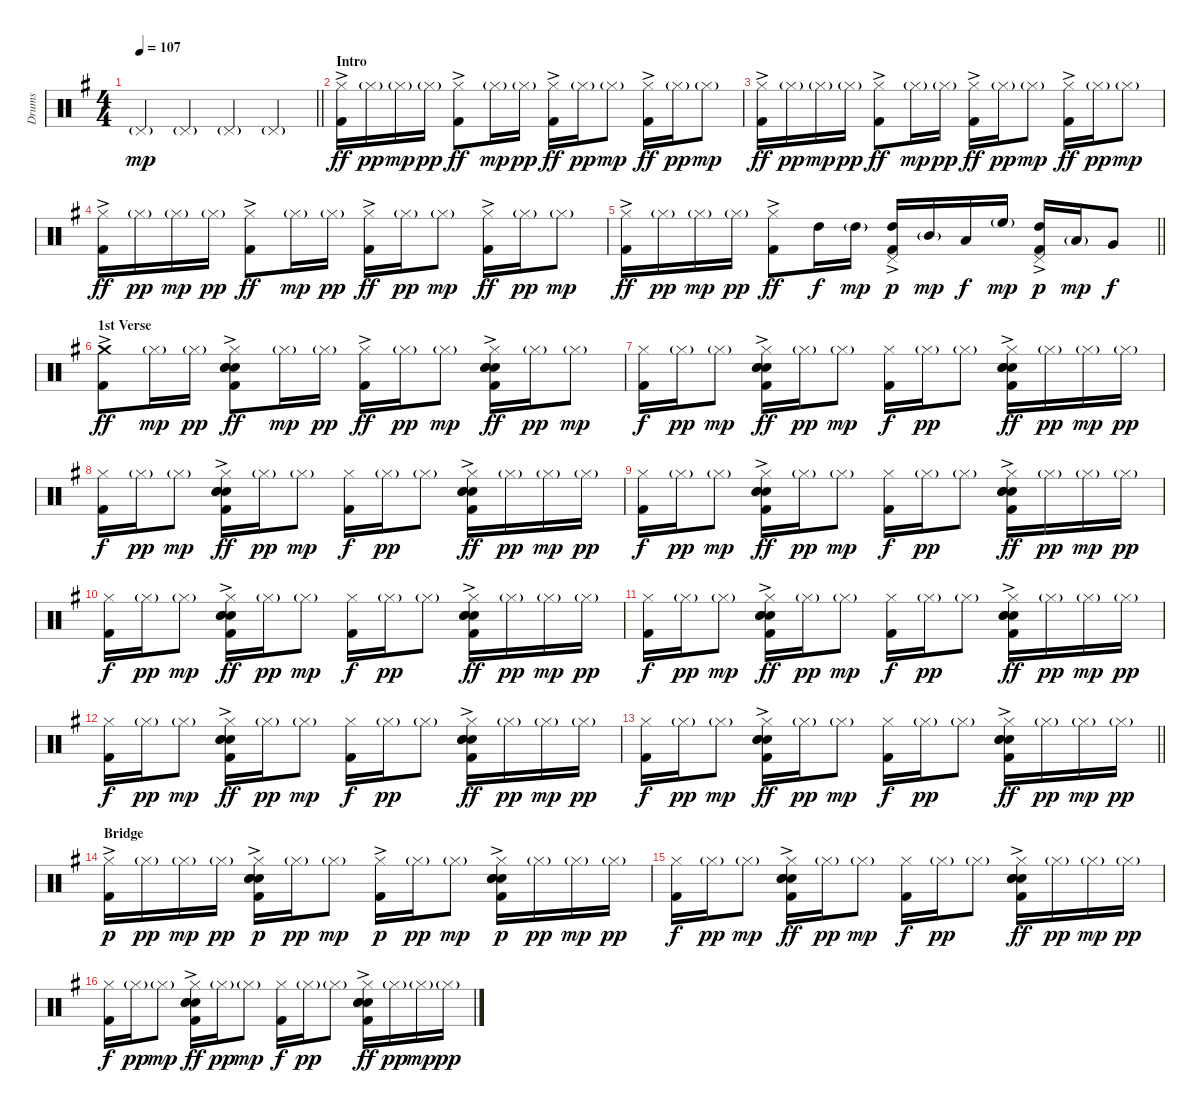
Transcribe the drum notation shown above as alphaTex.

\track ("Drums" "Drums") {instrument percussion}
\staff {score}
\articulation defaults
\ts (4 4)
\tempo 107
\clef neutral
\barLineRight lightlight
\ks g "Pedal Hi-Hat (hit)"{g}.4{dy mp} "Pedal Hi-Hat (hit)"{g}.4 "Pedal Hi-Hat (hit)"{g}.4 "Pedal Hi-Hat (hit)"{g}.4
|
\section ("" "Intro")
("Hi-Hat (closed)" "Kick (hit) 2"{ac}).16{dy ff} "Hi-Hat (closed)"{g}.16{dy pp} "Hi-Hat (closed)"{g}.16{dy mp} "Hi-Hat (closed)"{g}.16{dy pp} ("Hi-Hat (closed)" "Kick (hit) 2"{ac}).8{dy ff} "Hi-Hat (closed)"{g}.16{dy mp} "Hi-Hat (closed)"{g}.16{dy pp} ("Hi-Hat (closed)" "Kick (hit) 2"{ac}).16{dy ff} "Hi-Hat (closed)"{g}.16{dy pp} "Hi-Hat (closed)"{g}.8{dy mp} ("Hi-Hat (closed)" "Kick (hit) 2"{ac}).16{dy ff} "Hi-Hat (closed)"{g}.16{dy pp} "Hi-Hat (closed)"{g}.8{dy mp} |
("Hi-Hat (closed)" "Kick (hit) 2"{ac}).16{dy ff} "Hi-Hat (closed)"{g}.16{dy pp} "Hi-Hat (closed)"{g}.16{dy mp} "Hi-Hat (closed)"{g}.16{dy pp} ("Hi-Hat (closed)" "Kick (hit) 2"{ac}).8{dy ff} "Hi-Hat (closed)"{g}.16{dy mp} "Hi-Hat (closed)"{g}.16{dy pp} ("Hi-Hat (closed)" "Kick (hit) 2"{ac}).16{dy ff} "Hi-Hat (closed)"{g}.16{dy pp} "Hi-Hat (closed)"{g}.8{dy mp} ("Hi-Hat (closed)" "Kick (hit) 2"{ac}).16{dy ff} "Hi-Hat (closed)"{g}.16{dy pp} "Hi-Hat (closed)"{g}.8{dy mp} |
("Hi-Hat (closed)" "Kick (hit) 2"{ac}).16{dy ff} "Hi-Hat (closed)"{g}.16{dy pp} "Hi-Hat (closed)"{g}.16{dy mp} "Hi-Hat (closed)"{g}.16{dy pp} ("Hi-Hat (closed)" "Kick (hit) 2"{ac}).8{dy ff} "Hi-Hat (closed)"{g}.16{dy mp} "Hi-Hat (closed)"{g}.16{dy pp} ("Hi-Hat (closed)" "Kick (hit) 2"{ac}).16{dy ff} "Hi-Hat (closed)"{g}.16{dy pp} "Hi-Hat (closed)"{g}.8{dy mp} ("Hi-Hat (closed)" "Kick (hit) 2"{ac}).16{dy ff} "Hi-Hat (closed)"{g}.16{dy pp} "Hi-Hat (closed)"{g}.8{dy mp} |
\barLineRight lightlight
("Hi-Hat (closed)" "Kick (hit) 2"{ac}).16{dy ff} "Hi-Hat (closed)"{g}.16{dy pp} "Hi-Hat (closed)"{g}.16{dy mp} "Hi-Hat (closed)"{g}.16{dy pp} ("Hi-Hat (closed)" "Kick (hit) 2"{ac}).8{dy ff} "High Tom (hit)".16{dy f} "High Tom (hit)"{g}.16{dy mp} ("Pedal Hi-Hat (hit)" "High Tom (hit)"{ac} "Kick (hit) 2"{ac}).16{dy p} "Mid Tom (hit)"{g}.16{dy mp} "Low Tom (hit)".16{dy f} "High Floor Tom (hit)"{g}.16{dy mp} ("Pedal Hi-Hat (hit)" "High Tom (hit)"{ac} "Kick (hit) 2"{ac}).16{dy p} "Low Tom (hit)"{g}.16{dy mp} "Very Low Tom (hit)".8{dy f} |
\section ("" "1st Verse")
("Crash medium (hit)" "Kick (hit) 2"{ac}).8{dy ff} "Hi-Hat (closed)"{g}.16{dy mp} "Hi-Hat (closed)"{g}.16{dy pp} ("Hi-Hat (closed)" "Hand Clap (hit)" "Electric Snare (hit)"{ac} "Snare (hit) 2" "Kick (hit) 2"{ac}).8{dy ff} "Hi-Hat (closed)"{g}.16{dy mp} "Hi-Hat (closed)"{g}.16{dy pp} ("Hi-Hat (closed)" "Kick (hit) 2"{ac}).16{dy ff} "Hi-Hat (closed)"{g}.16{dy pp} "Hi-Hat (closed)"{g}.8{dy mp} ("Hi-Hat (closed)" "Hand Clap (hit)" "Electric Snare (hit)"{ac} "Snare (hit) 2" "Kick (hit) 2"{ac}).16{dy ff} "Hi-Hat (closed)"{g}.16{dy pp} "Hi-Hat (closed)"{g}.8{dy mp} |
("Hi-Hat (closed)" "Kick (hit) 2").16{dy f} "Hi-Hat (closed)"{g}.16{dy pp} "Hi-Hat (closed)"{g}.8{dy mp} ("Hi-Hat (closed)" "Hand Clap (hit)" "Electric Snare (hit)"{ac} "Snare (hit) 2" "Kick (hit) 2").16{dy ff} "Hi-Hat (closed)"{g}.16{dy pp} "Hi-Hat (closed)"{g}.8{dy mp} ("Hi-Hat (closed)" "Kick (hit) 2").16{dy f} "Hi-Hat (closed)"{g}.16{dy pp} "Hi-Hat (closed)"{g}.8 ("Hi-Hat (closed)" "Hand Clap (hit)" "Electric Snare (hit)"{ac} "Snare (hit) 2" "Kick (hit) 2").16{dy ff} "Hi-Hat (closed)"{g}.16{dy pp} "Hi-Hat (closed)"{g}.16{dy mp} "Hi-Hat (closed)"{g}.16{dy pp} |
("Hi-Hat (closed)" "Kick (hit) 2").16{dy f} "Hi-Hat (closed)"{g}.16{dy pp} "Hi-Hat (closed)"{g}.8{dy mp} ("Hi-Hat (closed)" "Hand Clap (hit)" "Electric Snare (hit)"{ac} "Snare (hit) 2" "Kick (hit) 2").16{dy ff} "Hi-Hat (closed)"{g}.16{dy pp} "Hi-Hat (closed)"{g}.8{dy mp} ("Hi-Hat (closed)" "Kick (hit) 2").16{dy f} "Hi-Hat (closed)"{g}.16{dy pp} "Hi-Hat (closed)"{g}.8 ("Hi-Hat (closed)" "Hand Clap (hit)" "Electric Snare (hit)"{ac} "Snare (hit) 2" "Kick (hit) 2").16{dy ff} "Hi-Hat (closed)"{g}.16{dy pp} "Hi-Hat (closed)"{g}.16{dy mp} "Hi-Hat (closed)"{g}.16{dy pp} |
("Hi-Hat (closed)" "Kick (hit) 2").16{dy f} "Hi-Hat (closed)"{g}.16{dy pp} "Hi-Hat (closed)"{g}.8{dy mp} ("Hi-Hat (closed)" "Hand Clap (hit)" "Electric Snare (hit)"{ac} "Snare (hit) 2" "Kick (hit) 2").16{dy ff} "Hi-Hat (closed)"{g}.16{dy pp} "Hi-Hat (closed)"{g}.8{dy mp} ("Hi-Hat (closed)" "Kick (hit) 2").16{dy f} "Hi-Hat (closed)"{g}.16{dy pp} "Hi-Hat (closed)"{g}.8 ("Hi-Hat (closed)" "Hand Clap (hit)" "Electric Snare (hit)"{ac} "Snare (hit) 2" "Kick (hit) 2").16{dy ff} "Hi-Hat (closed)"{g}.16{dy pp} "Hi-Hat (closed)"{g}.16{dy mp} "Hi-Hat (closed)"{g}.16{dy pp} |
("Hi-Hat (closed)" "Kick (hit) 2").16{dy f} "Hi-Hat (closed)"{g}.16{dy pp} "Hi-Hat (closed)"{g}.8{dy mp} ("Hi-Hat (closed)" "Hand Clap (hit)" "Electric Snare (hit)"{ac} "Snare (hit) 2" "Kick (hit) 2").16{dy ff} "Hi-Hat (closed)"{g}.16{dy pp} "Hi-Hat (closed)"{g}.8{dy mp} ("Hi-Hat (closed)" "Kick (hit) 2").16{dy f} "Hi-Hat (closed)"{g}.16{dy pp} "Hi-Hat (closed)"{g}.8 ("Hi-Hat (closed)" "Hand Clap (hit)" "Electric Snare (hit)"{ac} "Snare (hit) 2" "Kick (hit) 2").16{dy ff} "Hi-Hat (closed)"{g}.16{dy pp} "Hi-Hat (closed)"{g}.16{dy mp} "Hi-Hat (closed)"{g}.16{dy pp} |
("Hi-Hat (closed)" "Kick (hit) 2").16{dy f} "Hi-Hat (closed)"{g}.16{dy pp} "Hi-Hat (closed)"{g}.8{dy mp} ("Hi-Hat (closed)" "Hand Clap (hit)" "Electric Snare (hit)"{ac} "Snare (hit) 2" "Kick (hit) 2").16{dy ff} "Hi-Hat (closed)"{g}.16{dy pp} "Hi-Hat (closed)"{g}.8{dy mp} ("Hi-Hat (closed)" "Kick (hit) 2").16{dy f} "Hi-Hat (closed)"{g}.16{dy pp} "Hi-Hat (closed)"{g}.8 ("Hi-Hat (closed)" "Hand Clap (hit)" "Electric Snare (hit)"{ac} "Snare (hit) 2" "Kick (hit) 2").16{dy ff} "Hi-Hat (closed)"{g}.16{dy pp} "Hi-Hat (closed)"{g}.16{dy mp} "Hi-Hat (closed)"{g}.16{dy pp} |
("Hi-Hat (closed)" "Kick (hit) 2").16{dy f} "Hi-Hat (closed)"{g}.16{dy pp} "Hi-Hat (closed)"{g}.8{dy mp} ("Hi-Hat (closed)" "Hand Clap (hit)" "Electric Snare (hit)"{ac} "Snare (hit) 2" "Kick (hit) 2").16{dy ff} "Hi-Hat (closed)"{g}.16{dy pp} "Hi-Hat (closed)"{g}.8{dy mp} ("Hi-Hat (closed)" "Kick (hit) 2").16{dy f} "Hi-Hat (closed)"{g}.16{dy pp} "Hi-Hat (closed)"{g}.8 ("Hi-Hat (closed)" "Hand Clap (hit)" "Electric Snare (hit)"{ac} "Snare (hit) 2" "Kick (hit) 2").16{dy ff} "Hi-Hat (closed)"{g}.16{dy pp} "Hi-Hat (closed)"{g}.16{dy mp} "Hi-Hat (closed)"{g}.16{dy pp} |
\barLineRight lightlight
("Hi-Hat (closed)" "Kick (hit) 2").16{dy f} "Hi-Hat (closed)"{g}.16{dy pp} "Hi-Hat (closed)"{g}.8{dy mp} ("Hi-Hat (closed)" "Hand Clap (hit)" "Electric Snare (hit)"{ac} "Snare (hit) 2" "Kick (hit) 2").16{dy ff} "Hi-Hat (closed)"{g}.16{dy pp} "Hi-Hat (closed)"{g}.8{dy mp} ("Hi-Hat (closed)" "Kick (hit) 2").16{dy f} "Hi-Hat (closed)"{g}.16{dy pp} "Hi-Hat (closed)"{g}.8 ("Hi-Hat (closed)" "Hand Clap (hit)" "Electric Snare (hit)"{ac} "Snare (hit) 2" "Kick (hit) 2").16{dy ff} "Hi-Hat (closed)"{g}.16{dy pp} "Hi-Hat (closed)"{g}.16{dy mp} "Hi-Hat (closed)"{g}.16{dy pp} |
\section ("" "Bridge")
("Hi-Hat (closed)" "Kick (hit) 2"{ac}).16{dy p} "Hi-Hat (closed)"{g}.16{dy pp} "Hi-Hat (closed)"{g}.16{dy mp} "Hi-Hat (closed)"{g}.16{dy pp} ("Hi-Hat (closed)" "Hand Clap (hit)" "Electric Snare (hit)"{ac} "Snare (hit) 2" "Kick (hit) 2"{ac}).16{dy p} "Hi-Hat (closed)"{g}.16{dy pp} "Hi-Hat (closed)"{g}.8{dy mp} ("Hi-Hat (closed)" "Kick (hit) 2"{ac}).16{dy p} "Hi-Hat (closed)"{g}.16{dy pp} "Hi-Hat (closed)"{g}.8{dy mp} ("Hi-Hat (closed)" "Hand Clap (hit)" "Electric Snare (hit)"{ac} "Snare (hit) 2" "Kick (hit) 2"{ac}).16{dy p} "Hi-Hat (closed)"{g}.16{dy pp} "Hi-Hat (closed)"{g}.16{dy mp} "Hi-Hat (closed)"{g}.16{dy pp} |
("Hi-Hat (closed)" "Kick (hit) 2").16{dy f} "Hi-Hat (closed)"{g}.16{dy pp} "Hi-Hat (closed)"{g}.8{dy mp} ("Hi-Hat (closed)" "Hand Clap (hit)" "Electric Snare (hit)"{ac} "Snare (hit) 2" "Kick (hit) 2").16{dy ff} "Hi-Hat (closed)"{g}.16{dy pp} "Hi-Hat (closed)"{g}.8{dy mp} ("Hi-Hat (closed)" "Kick (hit) 2").16{dy f} "Hi-Hat (closed)"{g}.16{dy pp} "Hi-Hat (closed)"{g}.8 ("Hi-Hat (closed)" "Hand Clap (hit)" "Electric Snare (hit)"{ac} "Snare (hit) 2" "Kick (hit) 2").16{dy ff} "Hi-Hat (closed)"{g}.16{dy pp} "Hi-Hat (closed)"{g}.16{dy mp} "Hi-Hat (closed)"{g}.16{dy pp} |
("Hi-Hat (closed)" "Kick (hit) 2").16{dy f} "Hi-Hat (closed)"{g}.16{dy pp} "Hi-Hat (closed)"{g}.8{dy mp} ("Hi-Hat (closed)" "Hand Clap (hit)" "Electric Snare (hit)"{ac} "Snare (hit) 2" "Kick (hit) 2").16{dy ff} "Hi-Hat (closed)"{g}.16{dy pp} "Hi-Hat (closed)"{g}.8{dy mp} ("Hi-Hat (closed)" "Kick (hit) 2").16{dy f} "Hi-Hat (closed)"{g}.16{dy pp} "Hi-Hat (closed)"{g}.8 ("Hi-Hat (closed)" "Hand Clap (hit)" "Electric Snare (hit)"{ac} "Snare (hit) 2" "Kick (hit) 2").16{dy ff} "Hi-Hat (closed)"{g}.16{dy pp} "Hi-Hat (closed)"{g}.16{dy mp} "Hi-Hat (closed)"{g}.16{dy pp}
